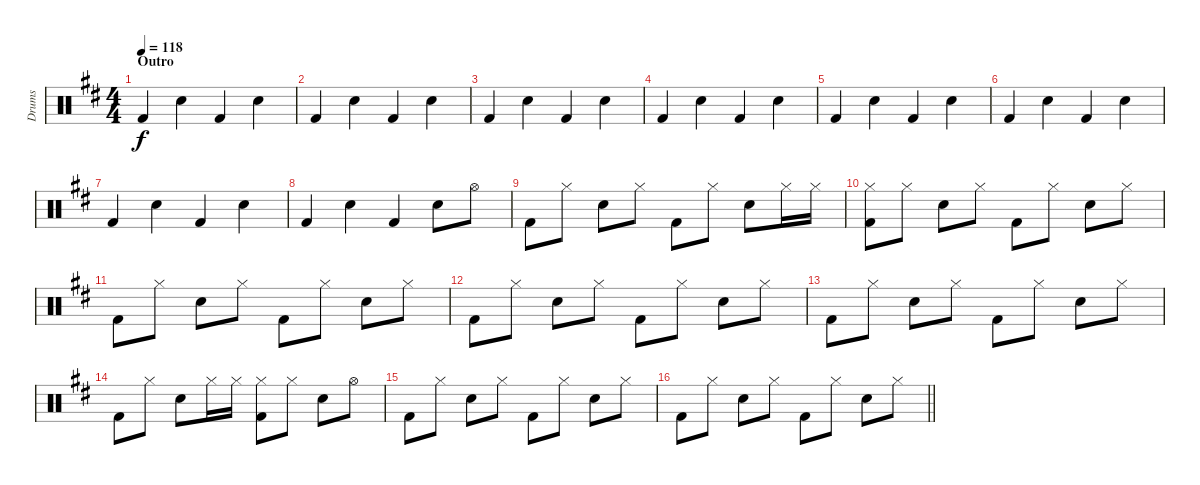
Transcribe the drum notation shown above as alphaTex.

\track ("Drums" "Drums") {instrument percussion}
\staff {score}
\articulation defaults
\ts (4 4)
\section ("" "Outro")
\tempo 118
\clef neutral
\ks bminor "Kick (hit) 2".4{dy f} "Snare (hit) 2".4 "Kick (hit) 2".4 "Snare (hit) 2".4
|
"Kick (hit) 2".4 "Snare (hit) 2".4 "Kick (hit) 2".4 "Snare (hit) 2".4 |
"Kick (hit) 2".4 "Snare (hit) 2".4 "Kick (hit) 2".4 "Snare (hit) 2".4 |
"Kick (hit) 2".4 "Snare (hit) 2".4 "Kick (hit) 2".4 "Snare (hit) 2".4 |
"Kick (hit) 2".4 "Snare (hit) 2".4 "Kick (hit) 2".4 "Snare (hit) 2".4 |
"Kick (hit) 2".4 "Snare (hit) 2".4 "Kick (hit) 2".4 "Snare (hit) 2".4 |
"Kick (hit) 2".4 "Snare (hit) 2".4 "Kick (hit) 2".4 "Snare (hit) 2".4 |
"Kick (hit) 2".4 "Snare (hit) 2".4 "Kick (hit) 2".4 "Snare (hit) 2".8 "Hi-Hat (open)".8 |
"Kick (hit) 2".8 "Hi-Hat (closed)".8 "Snare (hit) 2".8 "Hi-Hat (closed)".8 "Kick (hit) 2".8 "Hi-Hat (closed)".8 "Snare (hit) 2".8 "Hi-Hat (closed)".16 "Hi-Hat (closed)".16 |
("Hi-Hat (closed)" "Kick (hit) 2").8 "Hi-Hat (closed)".8 "Snare (hit) 2".8 "Hi-Hat (closed)".8 "Kick (hit) 2".8 "Hi-Hat (closed)".8 "Snare (hit) 2".8 "Hi-Hat (closed)".8 |
"Kick (hit) 2".8 "Hi-Hat (closed)".8 "Snare (hit) 2".8 "Hi-Hat (closed)".8 "Kick (hit) 2".8 "Hi-Hat (closed)".8 "Snare (hit) 2".8 "Hi-Hat (closed)".8 |
"Kick (hit) 2".8 "Hi-Hat (closed)".8 "Snare (hit) 2".8 "Hi-Hat (closed)".8 "Kick (hit) 2".8 "Hi-Hat (closed)".8 "Snare (hit) 2".8 "Hi-Hat (closed)".8 |
"Kick (hit) 2".8 "Hi-Hat (closed)".8 "Snare (hit) 2".8 "Hi-Hat (closed)".8 "Kick (hit) 2".8 "Hi-Hat (closed)".8 "Snare (hit) 2".8 "Hi-Hat (closed)".8 |
"Kick (hit) 2".8 "Hi-Hat (closed)".8 "Snare (hit) 2".8 "Hi-Hat (closed)".16 "Hi-Hat (closed)".16 ("Hi-Hat (closed)" "Kick (hit) 2").8 "Hi-Hat (closed)".8 "Snare (hit) 2".8 "Hi-Hat (open)".8 |
"Kick (hit) 2".8 "Hi-Hat (closed)".8 "Snare (hit) 2".8 "Hi-Hat (closed)".8 "Kick (hit) 2".8 "Hi-Hat (closed)".8 "Snare (hit) 2".8 "Hi-Hat (closed)".8 |
\barLineRight lightlight "Kick (hit) 2".8 "Hi-Hat (closed)".8 "Snare (hit) 2".8 "Hi-Hat (closed)".8 "Kick (hit) 2".8 "Hi-Hat (closed)".8 "Snare (hit) 2".8 "Hi-Hat (closed)".8
